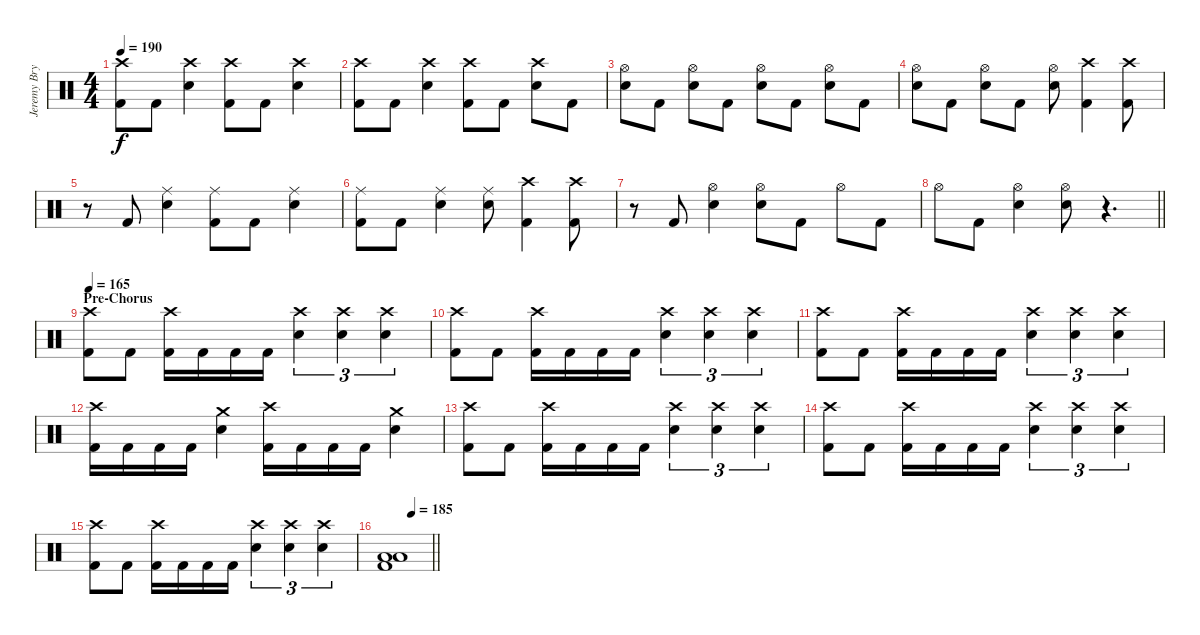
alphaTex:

\track ("Jeremy Bryan - Drums" "Jeremy Bry") {instrument percussion}
\staff {score}
\articulation defaults
\ts (4 4)
\tempo 190
\clef neutral
\ks c
("Crash high (hit)" "Kick (hit) 2").8{dy f} "Kick (hit) 2".8 ("Crash high (hit)" "Electric Snare (hit)").4 ("Crash high (hit)" "Kick (hit) 2").8 "Kick (hit) 2".8 ("Crash high (hit)" "Electric Snare (hit)").4 |
("Crash high (hit)" "Kick (hit) 2").8 "Kick (hit) 2".8 ("Crash high (hit)" "Electric Snare (hit)").4 ("Crash high (hit)" "Kick (hit) 2").8 "Kick (hit) 2".8 ("Crash high (hit)" "Electric Snare (hit)").8 "Kick (hit) 2".8 |
("Hi-Hat (open)" "Electric Snare (hit)").8 "Kick (hit) 2".8 ("Hi-Hat (open)" "Electric Snare (hit)").8 "Kick (hit) 2".8 ("Hi-Hat (open)" "Electric Snare (hit)").8 "Kick (hit) 2".8 ("Hi-Hat (open)" "Electric Snare (hit)").8 "Kick (hit) 2".8 |
("Hi-Hat (open)" "Electric Snare (hit)").8 "Kick (hit) 2".8 ("Hi-Hat (open)" "Electric Snare (hit)").8 "Kick (hit) 2".8 ("Hi-Hat (open)" "Electric Snare (hit)").8 ("Crash high (hit)" "Kick (hit) 2").4 ("Crash high (hit)" "Kick (hit) 2").8 |
r.8 "Kick (hit) 2".8 ("Ride (middle)" "Electric Snare (hit)").4 ("Ride (middle)" "Kick (hit) 2").8 "Kick (hit) 2".8 ("Ride (middle)" "Electric Snare (hit)").4 |
("Ride (middle)" "Kick (hit) 2").8 "Kick (hit) 2".8 ("Ride (middle)" "Electric Snare (hit)").4 ("Ride (middle)" "Electric Snare (hit)").8 ("Crash high (hit)" "Kick (hit) 2").4 ("Crash high (hit)" "Kick (hit) 2").8 |
r.8 "Kick (hit) 2".8 ("Hi-Hat (open)" "Electric Snare (hit)").4 ("Hi-Hat (open)" "Electric Snare (hit)").8 "Kick (hit) 2".8 "Hi-Hat (open)".8 "Kick (hit) 2".8 |
\barLineRight lightlight "Hi-Hat (open)".8 "Kick (hit) 2".8
("Hi-Hat (open)" "Electric Snare (hit)").4 ("Hi-Hat (open)" "Electric Snare (hit)").8 r.4{d} |
\section ("" "Pre-Chorus")
\tempo 165
("Crash high (hit)" "Kick (hit) 2").8 "Kick (hit) 2".8 ("Crash high (hit)" "Kick (hit) 2").16 "Kick (hit) 2".16 "Kick (hit) 2".16 "Kick (hit) 2".16 ("Crash high (hit)" "Electric Snare (hit)").4{tu (3 2)} ("Crash high (hit)" "Electric Snare (hit)").4{tu (3 2)} ("Crash high (hit)" "Electric Snare (hit)").4{tu (3 2)} |
("Crash high (hit)" "Kick (hit) 2").8 "Kick (hit) 2".8 ("Crash high (hit)" "Kick (hit) 2").16 "Kick (hit) 2".16 "Kick (hit) 2".16 "Kick (hit) 2".16 ("Crash high (hit)" "Electric Snare (hit)").4{tu (3 2)} ("Crash high (hit)" "Electric Snare (hit)").4{tu (3 2)} ("Crash high (hit)" "Electric Snare (hit)").4{tu (3 2)} |
("Crash high (hit)" "Kick (hit) 2").8 "Kick (hit) 2".8 ("Crash high (hit)" "Kick (hit) 2").16 "Kick (hit) 2".16 "Kick (hit) 2".16 "Kick (hit) 2".16 ("Crash high (hit)" "Electric Snare (hit)").4{tu (3 2)} ("Crash high (hit)" "Electric Snare (hit)").4{tu (3 2)} ("Crash high (hit)" "Electric Snare (hit)").4{tu (3 2)} |
("Crash high (hit)" "Kick (hit) 2").16 "Kick (hit) 2".16 "Kick (hit) 2".16 "Kick (hit) 2".16 ("Crash medium (hit)" "Electric Snare (hit)").4 ("Crash high (hit)" "Kick (hit) 2").16 "Kick (hit) 2".16 "Kick (hit) 2".16 "Kick (hit) 2".16 ("Crash medium (hit)" "Electric Snare (hit)").4 |
("Crash high (hit)" "Kick (hit) 2").8 "Kick (hit) 2".8 ("Crash high (hit)" "Kick (hit) 2").16 "Kick (hit) 2".16 "Kick (hit) 2".16 "Kick (hit) 2".16 ("Crash high (hit)" "Electric Snare (hit)").4{tu (3 2)} ("Crash high (hit)" "Electric Snare (hit)").4{tu (3 2)} ("Crash high (hit)" "Electric Snare (hit)").4{tu (3 2)} |
("Crash high (hit)" "Kick (hit) 2").8 "Kick (hit) 2".8 ("Crash high (hit)" "Kick (hit) 2").16 "Kick (hit) 2".16 "Kick (hit) 2".16 "Kick (hit) 2".16 ("Crash high (hit)" "Electric Snare (hit)").4{tu (3 2)} ("Crash high (hit)" "Electric Snare (hit)").4{tu (3 2)} ("Crash high (hit)" "Electric Snare (hit)").4{tu (3 2)} |
("Crash high (hit)" "Kick (hit) 2").8 "Kick (hit) 2".8 ("Crash high (hit)" "Kick (hit) 2").16 "Kick (hit) 2".16 "Kick (hit) 2".16 "Kick (hit) 2".16 ("Crash high (hit)" "Electric Snare (hit)").4{tu (3 2)} ("Crash high (hit)" "Electric Snare (hit)").4{tu (3 2)} ("Crash high (hit)" "Electric Snare (hit)").4{tu (3 2)} |
\tempo (185 0.5)
\barLineRight lightlight
("Low Tom (hit)" "Low Floor Tom (hit)" "Kick (hit) 2").1
